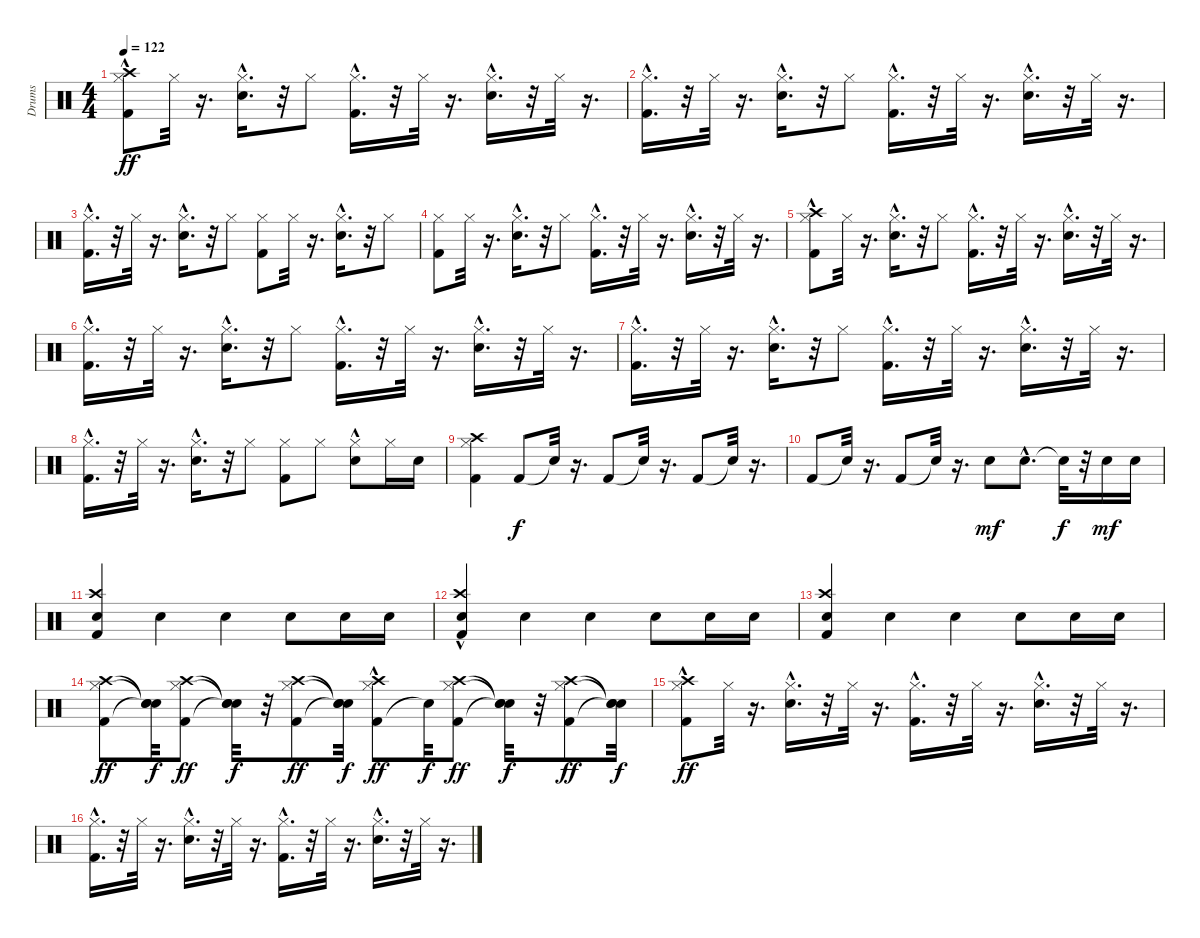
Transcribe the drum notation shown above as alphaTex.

\track ("Drums" "Drums") {instrument percussion}
\staff {score}
\articulation defaults
\ts (4 4)
\tempo 122
\clef neutral
\ks c
("Kick (hit) 2"{hac} "Hi-Hat (closed)"{hac} "Crash high (hit)").8{dy ff} "Hi-Hat (closed)".32 r.16{d} ("Snare (hit) 2"{hac} "Hi-Hat (closed)"{hac}).16{d} r.32 "Hi-Hat (closed)".8 ("Kick (hit) 2"{hac} "Hi-Hat (closed)"{hac}).16{d} r.32 "Hi-Hat (closed)".32 r.16{d} ("Snare (hit) 2"{hac} "Hi-Hat (closed)"{hac}).16{d} r.32 "Hi-Hat (closed)".32 r.16{d} |
("Kick (hit) 2"{hac} "Hi-Hat (closed)"{hac}).16{d} r.32 "Hi-Hat (closed)".32 r.16{d} ("Snare (hit) 2"{hac} "Hi-Hat (closed)"{hac}).16{d} r.32 "Hi-Hat (closed)".8 ("Kick (hit) 2"{hac} "Hi-Hat (closed)"{hac}).16{d} r.32 "Hi-Hat (closed)".32 r.16{d} ("Snare (hit) 2"{hac} "Hi-Hat (closed)"{hac}).16{d} r.32 "Hi-Hat (closed)".32 r.16{d} |
("Kick (hit) 2"{hac} "Hi-Hat (closed)"{hac}).16{d} r.32 "Hi-Hat (closed)".32 r.16{d} ("Snare (hit) 2"{hac} "Hi-Hat (closed)"{hac}).16{d} r.32 "Hi-Hat (closed)".8 ("Kick (hit) 2" "Hi-Hat (closed)").8 "Hi-Hat (closed)".32 r.16{d} ("Snare (hit) 2"{hac} "Hi-Hat (closed)"{hac}).16{d} r.32 "Hi-Hat (closed)".8 |
("Kick (hit) 2" "Hi-Hat (closed)").8 "Hi-Hat (closed)".32 r.16{d} ("Snare (hit) 2"{hac} "Hi-Hat (closed)"{hac}).16{d} r.32 "Hi-Hat (closed)".8 ("Kick (hit) 2"{hac} "Hi-Hat (closed)"{hac}).16{d} r.32 "Hi-Hat (closed)".32 r.16{d} ("Snare (hit) 2"{hac} "Hi-Hat (closed)"{hac}).16{d} r.32 "Hi-Hat (closed)".32 r.16{d} |
("Kick (hit) 2"{hac} "Hi-Hat (closed)"{hac} "Crash high (hit)").8 "Hi-Hat (closed)".32 r.16{d} ("Snare (hit) 2"{hac} "Hi-Hat (closed)"{hac}).16{d} r.32 "Hi-Hat (closed)".8 ("Kick (hit) 2"{hac} "Hi-Hat (closed)"{hac}).16{d} r.32 "Hi-Hat (closed)".32 r.16{d} ("Snare (hit) 2"{hac} "Hi-Hat (closed)"{hac}).16{d} r.32 "Hi-Hat (closed)".32 r.16{d} |
("Kick (hit) 2"{hac} "Hi-Hat (closed)"{hac}).16{d} r.32 "Hi-Hat (closed)".32 r.16{d} ("Snare (hit) 2"{hac} "Hi-Hat (closed)"{hac}).16{d} r.32 "Hi-Hat (closed)".8 ("Kick (hit) 2"{hac} "Hi-Hat (closed)"{hac}).16{d} r.32 "Hi-Hat (closed)".32 r.16{d} ("Snare (hit) 2"{hac} "Hi-Hat (closed)"{hac}).16{d} r.32 "Hi-Hat (closed)".32 r.16{d} |
("Kick (hit) 2"{hac} "Hi-Hat (closed)"{hac}).16{d} r.32 "Hi-Hat (closed)".32 r.16{d} ("Snare (hit) 2"{hac} "Hi-Hat (closed)"{hac}).16{d} r.32 "Hi-Hat (closed)".8 ("Kick (hit) 2"{hac} "Hi-Hat (closed)"{hac}).16{d} r.32 "Hi-Hat (closed)".32 r.16{d} ("Snare (hit) 2"{hac} "Hi-Hat (closed)"{hac}).16{d} r.32 "Hi-Hat (closed)".32 r.16{d} |
("Kick (hit) 2"{hac} "Hi-Hat (closed)"{hac}).16{d} r.32 "Hi-Hat (closed)".32 r.16{d} ("Snare (hit) 2"{hac} "Hi-Hat (closed)"{hac}).16{d} r.32 "Hi-Hat (closed)".8 ("Kick (hit) 2" "Hi-Hat (closed)").8 "Hi-Hat (closed)".8 ("Snare (hit) 2"{hac} "Hi-Hat (closed)").8 "Hi-Hat (closed)".16 "Snare (hit) 2".16 |
("Kick (hit) 2" "Hi-Hat (closed)" "Crash high (hit)").4 "Kick (hit) 2".8{dy f} "Snare (hit)"{t}.32 r.16{d} "Kick (hit) 2".8 "Snare (hit)"{t}.32 r.16{d} "Kick (hit) 2".8 "Snare (hit)"{t}.32 r.16{d} |
"Kick (hit) 2".8 "Snare (hit)"{t}.32 r.16{d} "Kick (hit) 2".8 "Snare (hit)"{t}.32 r.16{d} "Snare (hit) 2".8{dy mf} "Snare (hit) 2"{hac}.8{d} "Snare (hit)"{t}.32{dy f} r.32 "Snare (hit) 2".16{dy mf} "Snare (hit) 2".16 |
("Snare (hit) 2" "Kick (hit) 2" "Crash high (hit)").4 "Snare (hit) 2".4 "Snare (hit) 2".4 "Snare (hit) 2".8 "Snare (hit) 2".16 "Snare (hit) 2".16 |
("Snare (hit) 2" "Kick (hit) 2" "Crash high (hit)"{hac}).4 "Snare (hit) 2".4 "Snare (hit) 2".4 "Snare (hit) 2".8 "Snare (hit) 2".16 "Snare (hit) 2".16 |
("Snare (hit) 2" "Kick (hit) 2" "Crash high (hit)").4 "Snare (hit) 2".4 "Snare (hit) 2".4 "Snare (hit) 2".8 "Snare (hit) 2".16 "Snare (hit) 2".16 |
("Hi-Hat (closed)" "Kick (hit) 2" "Crash high (hit)").8{dy ff} ("Snare (hit)"{t} "Snare (hit)"{t} "Snare (hit)"{t}).32{dy f} ("Kick (hit) 2" "Hi-Hat (closed)" "Crash high (hit)").8{dy ff} ("Snare (hit)"{t} "Snare (hit)"{t} "Snare (hit)"{t}).32{dy f} r.32 ("Kick (hit) 2" "Hi-Hat (closed)" "Crash high (hit)").8{dy ff} ("Snare (hit)"{t} "Snare (hit)"{t} "Snare (hit)"{t}).32{dy f} ("Kick (hit) 2"{hac} "Hi-Hat (closed)"{hac} "Crash high (hit)").8{dy ff} "Snare (hit)"{t}.32{dy f} ("Kick (hit) 2" "Hi-Hat (closed)" "Crash high (hit)").8{dy ff} ("Snare (hit)"{t} "Snare (hit)"{t} "Snare (hit)"{t}).32{dy f} r.32 ("Crash high (hit)" "Kick (hit) 2" "Hi-Hat (closed)").8{dy ff} ("Snare (hit)"{t} "Snare (hit)"{t} "Snare (hit)"{t}).32{dy f} |
("Kick (hit) 2"{hac} "Hi-Hat (closed)"{hac} "Crash high (hit)").8{dy ff} "Hi-Hat (closed)".32 r.16{d} ("Snare (hit) 2"{hac} "Hi-Hat (closed)"{hac}).16{d} r.32 "Hi-Hat (closed)".32 r.16{d} ("Kick (hit) 2"{hac} "Hi-Hat (closed)"{hac}).16{d} r.32 "Hi-Hat (closed)".32 r.16{d} ("Snare (hit) 2"{hac} "Hi-Hat (closed)"{hac}).16{d} r.32 "Hi-Hat (closed)".32 r.16{d} |
("Kick (hit) 2"{hac} "Hi-Hat (closed)"{hac}).16{d} r.32 "Hi-Hat (closed)".32 r.16{d} ("Snare (hit) 2"{hac} "Hi-Hat (closed)"{hac}).16{d} r.32 "Hi-Hat (closed)".32 r.16{d} ("Kick (hit) 2"{hac} "Hi-Hat (closed)"{hac}).16{d} r.32 "Hi-Hat (closed)".32 r.16{d} ("Snare (hit) 2"{hac} "Hi-Hat (closed)"{hac}).16{d} r.32 "Hi-Hat (closed)".32 r.16{d}
